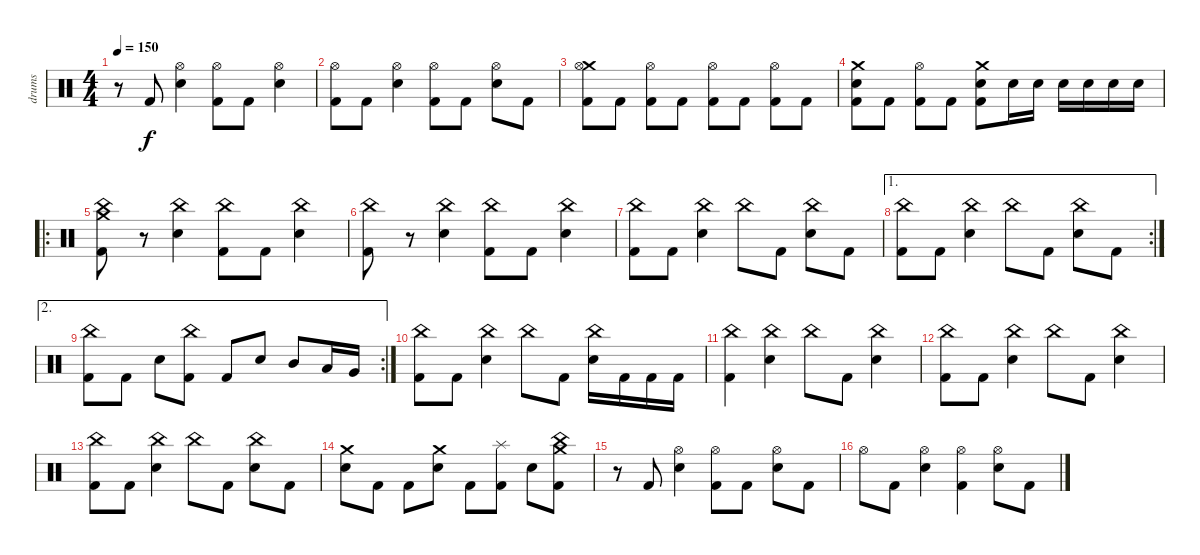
\track ("drums" "drums") {instrument percussion}
\staff {score}
\articulation defaults
\ts (4 4)
\tempo 150
\clef neutral
\ks c
r.8{dy f} "Kick (hit) 2".8 ("Hi-Hat (open)" "Electric Snare (hit)").4 ("Hi-Hat (open)" "Kick (hit) 2").8 "Kick (hit) 2".8 ("Hi-Hat (open)" "Electric Snare (hit)").4 |
("Hi-Hat (open)" "Kick (hit) 2").8 "Kick (hit) 2".8 ("Hi-Hat (open)" "Electric Snare (hit)").4 ("Hi-Hat (open)" "Kick (hit) 2").8 "Kick (hit) 2".8 ("Hi-Hat (open)" "Electric Snare (hit)").8 "Kick (hit) 2".8 |
("Crash medium (hit)" "Hi-Hat (open)" "Kick (hit) 2").8 "Kick (hit) 2".8 ("Hi-Hat (open)" "Kick (hit) 2").8 "Kick (hit) 2".8 ("Hi-Hat (open)" "Kick (hit) 2").8 "Kick (hit) 2".8 ("Hi-Hat (open)" "Kick (hit) 2").8 "Kick (hit) 2".8 |
("Crash medium (hit)" "Electric Snare (hit)" "Kick (hit) 2").8 "Kick (hit) 2".8 ("Hi-Hat (open)" "Kick (hit) 2").8 "Kick (hit) 2".8 ("Crash medium (hit)" "Electric Snare (hit)" "Kick (hit) 2").8 "Electric Snare (hit)".16 "Electric Snare (hit)".16 "Electric Snare (hit)".16 "Electric Snare (hit)".16 "Electric Snare (hit)".16 "Electric Snare (hit)".16 |
\ro
("China (hit)" "Crash medium (hit)" "Kick (hit) 2").8 r.8 ("China (hit)" "Electric Snare (hit)").4 ("China (hit)" "Kick (hit) 2").8 "Kick (hit) 2".8 ("China (hit)" "Electric Snare (hit)").4 |
("China (hit)" "Kick (hit) 2").8 r.8 ("China (hit)" "Electric Snare (hit)").4 ("China (hit)" "Kick (hit) 2").8 "Kick (hit) 2".8 ("China (hit)" "Electric Snare (hit)").4 |
("China (hit)" "Kick (hit) 2").8 "Kick (hit) 2".8 ("China (hit)" "Electric Snare (hit)").4 "China (hit)".8 "Kick (hit) 2".8 ("China (hit)" "Electric Snare (hit)").8 "Kick (hit) 2".8 |
\ae 1
\rc 2
("China (hit)" "Kick (hit) 2").8 "Kick (hit) 2".8 ("China (hit)" "Electric Snare (hit)").4 "China (hit)".8 "Kick (hit) 2".8 ("China (hit)" "Electric Snare (hit)").8 "Kick (hit) 2".8 |
\ae 2
\rc 2
("China (hit)" "Kick (hit) 2").8 "Kick (hit) 2".8 "Electric Snare (hit)".8 ("China (hit)" "Kick (hit) 2").8 "Kick (hit) 2".8 "Electric Snare (hit)".8 "Mid Tom (hit)".8 "Low Tom (hit)".16 "Very Low Tom (hit)".16 |
("China (hit)" "Kick (hit) 2").8 "Kick (hit) 2".8 ("China (hit)" "Electric Snare (hit)").4 "China (hit)".8 "Kick (hit) 2".8 ("China (hit)" "Electric Snare (hit)").16 "Kick (hit) 2".16 "Kick (hit) 2".16 "Kick (hit) 2".16 |
("China (hit)" "Kick (hit) 2").4 ("China (hit)" "Electric Snare (hit)").4 "China (hit)".8 "Kick (hit) 2".8 ("China (hit)" "Electric Snare (hit)").4 |
("China (hit)" "Kick (hit) 2").8 "Kick (hit) 2".8 ("China (hit)" "Electric Snare (hit)").4 "China (hit)".8 "Kick (hit) 2".8 ("China (hit)" "Electric Snare (hit)").4 |
("China (hit)" "Kick (hit) 2").8 "Kick (hit) 2".8 ("China (hit)" "Electric Snare (hit)").4 "China (hit)".8 "Kick (hit) 2".8 ("China (hit)" "Electric Snare (hit)").8 "Kick (hit) 2".8 |
("Crash medium (hit)" "Electric Snare (hit)").8 "Kick (hit) 2".8 "Kick (hit) 2".8 ("Crash medium (hit)" "Electric Snare (hit)").8 "Kick (hit) 2".8 ("Splash (hit)" "Kick (hit) 2").8 "Electric Snare (hit)".8 ("China (hit)" "Crash medium (hit)" "Kick (hit) 2").8 |
r.8 "Kick (hit) 2".8 ("Hi-Hat (open)" "Electric Snare (hit)").4 ("Hi-Hat (open)" "Kick (hit) 2").8 "Kick (hit) 2".8 ("Hi-Hat (open)" "Electric Snare (hit)").8 "Kick (hit) 2".8 |
"Hi-Hat (open)".8 "Kick (hit) 2".8 ("Hi-Hat (open)" "Electric Snare (hit)").4 ("Hi-Hat (open)" "Kick (hit) 2").4 ("Hi-Hat (open)" "Electric Snare (hit)").8 "Kick (hit) 2".8
